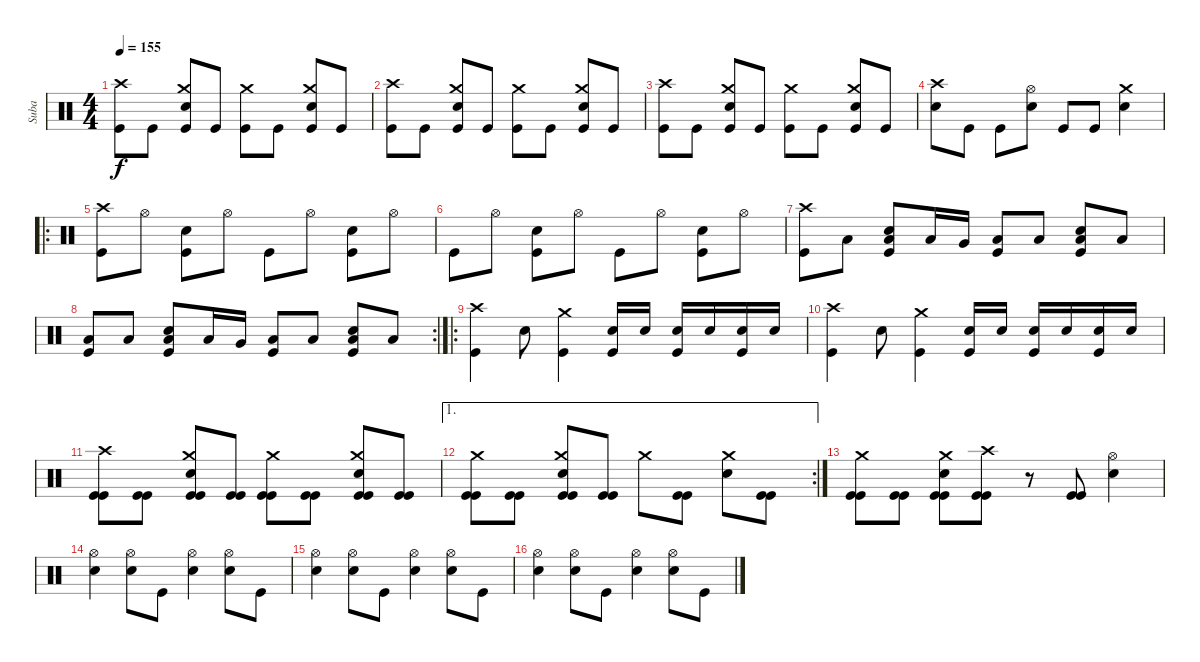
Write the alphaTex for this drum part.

\track ("Suba" "Suba") {instrument percussion}
\staff {score}
\articulation defaults
\ts (4 4)
\tempo 155
\clef neutral
\ks c
("Crash high (hit)" "Kick (hit)").8{dy f} "Kick (hit)".8 ("Crash medium (hit)" "Electric Snare (hit)" "Kick (hit)").8 "Kick (hit)".8 ("Crash medium (hit)" "Kick (hit)").8 "Kick (hit)".8 ("Crash medium (hit)" "Electric Snare (hit)" "Kick (hit)").8 "Kick (hit)".8 |
("Crash high (hit)" "Kick (hit)").8 "Kick (hit)".8 ("Crash medium (hit)" "Electric Snare (hit)" "Kick (hit)").8 "Kick (hit)".8 ("Crash medium (hit)" "Kick (hit)").8 "Kick (hit)".8 ("Crash medium (hit)" "Electric Snare (hit)" "Kick (hit)").8 "Kick (hit)".8 |
("Crash high (hit)" "Kick (hit)").8 "Kick (hit)".8 ("Crash medium (hit)" "Electric Snare (hit)" "Kick (hit)").8 "Kick (hit)".8 ("Crash medium (hit)" "Kick (hit)").8 "Kick (hit)".8 ("Crash medium (hit)" "Electric Snare (hit)" "Kick (hit)").8 "Kick (hit)".8 |
("Crash high (hit)" "Electric Snare (hit)").8 "Kick (hit)".8 "Kick (hit)".8 ("Hi-Hat (open)" "Electric Snare (hit)").8 "Kick (hit)".8 "Kick (hit)".8 ("Crash medium (hit)" "Electric Snare (hit)").4 |
\ro
("Crash high (hit)" "Kick (hit)").8 "Hi-Hat (open)".8 ("Electric Snare (hit)" "Kick (hit)").8 "Hi-Hat (open)".8 "Kick (hit)".8 "Hi-Hat (open)".8 ("Electric Snare (hit)" "Kick (hit)").8 "Hi-Hat (open)".8 |
"Kick (hit)".8 "Hi-Hat (open)".8 ("Electric Snare (hit)" "Kick (hit)").8 "Hi-Hat (open)".8 "Kick (hit)".8 "Hi-Hat (open)".8 ("Electric Snare (hit)" "Kick (hit)").8 "Hi-Hat (open)".8 |
("Crash high (hit)" "Kick (hit)").8 "Low Floor Tom (hit)".8 ("Low Floor Tom (hit)" "Electric Snare (hit)" "Kick (hit)").8 "Low Floor Tom (hit)".16 "Very Low Tom (hit)".16 ("Low Floor Tom (hit)" "Kick (hit)").8 "Low Floor Tom (hit)".8 ("Low Floor Tom (hit)" "Electric Snare (hit)" "Kick (hit)").8 "Low Floor Tom (hit)".8 |
\rc 2
("Low Floor Tom (hit)" "Kick (hit)").8 "Low Floor Tom (hit)".8 ("Low Floor Tom (hit)" "Electric Snare (hit)" "Kick (hit)").8 "Low Floor Tom (hit)".16 "Very Low Tom (hit)".16 ("Low Floor Tom (hit)" "Kick (hit)").8 "Low Floor Tom (hit)".8 ("Low Floor Tom (hit)" "Electric Snare (hit)" "Kick (hit)").8 "Low Floor Tom (hit)".8 |
\ro
("Crash high (hit)" "Kick (hit)").4 "Electric Snare (hit)".8 ("Crash medium (hit)" "Kick (hit)").4 ("Electric Snare (hit)" "Kick (hit)").16 "Electric Snare (hit)".16 ("Electric Snare (hit)" "Kick (hit)").16 "Electric Snare (hit)".16 ("Electric Snare (hit)" "Kick (hit)").16 "Electric Snare (hit)".16 |
("Crash high (hit)" "Kick (hit)").4 "Electric Snare (hit)".8 ("Crash medium (hit)" "Kick (hit)").4 ("Electric Snare (hit)" "Kick (hit)").16 "Electric Snare (hit)".16 ("Electric Snare (hit)" "Kick (hit)").16 "Electric Snare (hit)".16 ("Electric Snare (hit)" "Kick (hit)").16 "Electric Snare (hit)".16 |
("Crash high (hit)" "Kick (hit)" "Kick (hit)").8 ("Kick (hit)" "Kick (hit)").8 ("Crash medium (hit)" "Kick (hit)" "Electric Snare (hit)" "Kick (hit)").8 ("Kick (hit)" "Kick (hit)").8 ("Crash medium (hit)" "Kick (hit)" "Kick (hit)").8 ("Kick (hit)" "Kick (hit)").8 ("Crash medium (hit)" "Kick (hit)" "Electric Snare (hit)" "Kick (hit)").8 ("Kick (hit)" "Kick (hit)").8 |
\ae 1
\rc 2
("Crash medium (hit)" "Kick (hit)" "Kick (hit)").8 ("Kick (hit)" "Kick (hit)").8 ("Crash medium (hit)" "Kick (hit)" "Electric Snare (hit)" "Kick (hit)").8 ("Kick (hit)" "Kick (hit)").8 "Crash medium (hit)".8 ("Kick (hit)" "Kick (hit)").8 ("Crash medium (hit)" "Electric Snare (hit)").8 ("Kick (hit)" "Kick (hit)").8 |
("Crash medium (hit)" "Kick (hit)" "Kick (hit)").8 ("Kick (hit)" "Kick (hit)").8 ("Crash medium (hit)" "Kick (hit)" "Electric Snare (hit)" "Kick (hit)").8 ("Crash high (hit)" "Kick (hit)" "Kick (hit)").8 r.8 ("Kick (hit)" "Kick (hit)").8 ("Hi-Hat (open)" "Electric Snare (hit)").4 |
("Hi-Hat (open)" "Electric Snare (hit)").4 ("Hi-Hat (open)" "Electric Snare (hit)").8 "Kick (hit)".8 ("Hi-Hat (open)" "Electric Snare (hit)").4 ("Hi-Hat (open)" "Electric Snare (hit)").8 "Kick (hit)".8 |
("Hi-Hat (open)" "Electric Snare (hit)").4 ("Hi-Hat (open)" "Electric Snare (hit)").8 "Kick (hit)".8 ("Hi-Hat (open)" "Electric Snare (hit)").4 ("Hi-Hat (open)" "Electric Snare (hit)").8 "Kick (hit)".8 |
("Hi-Hat (open)" "Electric Snare (hit)").4 ("Hi-Hat (open)" "Electric Snare (hit)").8 "Kick (hit)".8 ("Hi-Hat (open)" "Electric Snare (hit)").4 ("Hi-Hat (open)" "Electric Snare (hit)").8 "Kick (hit)".8
